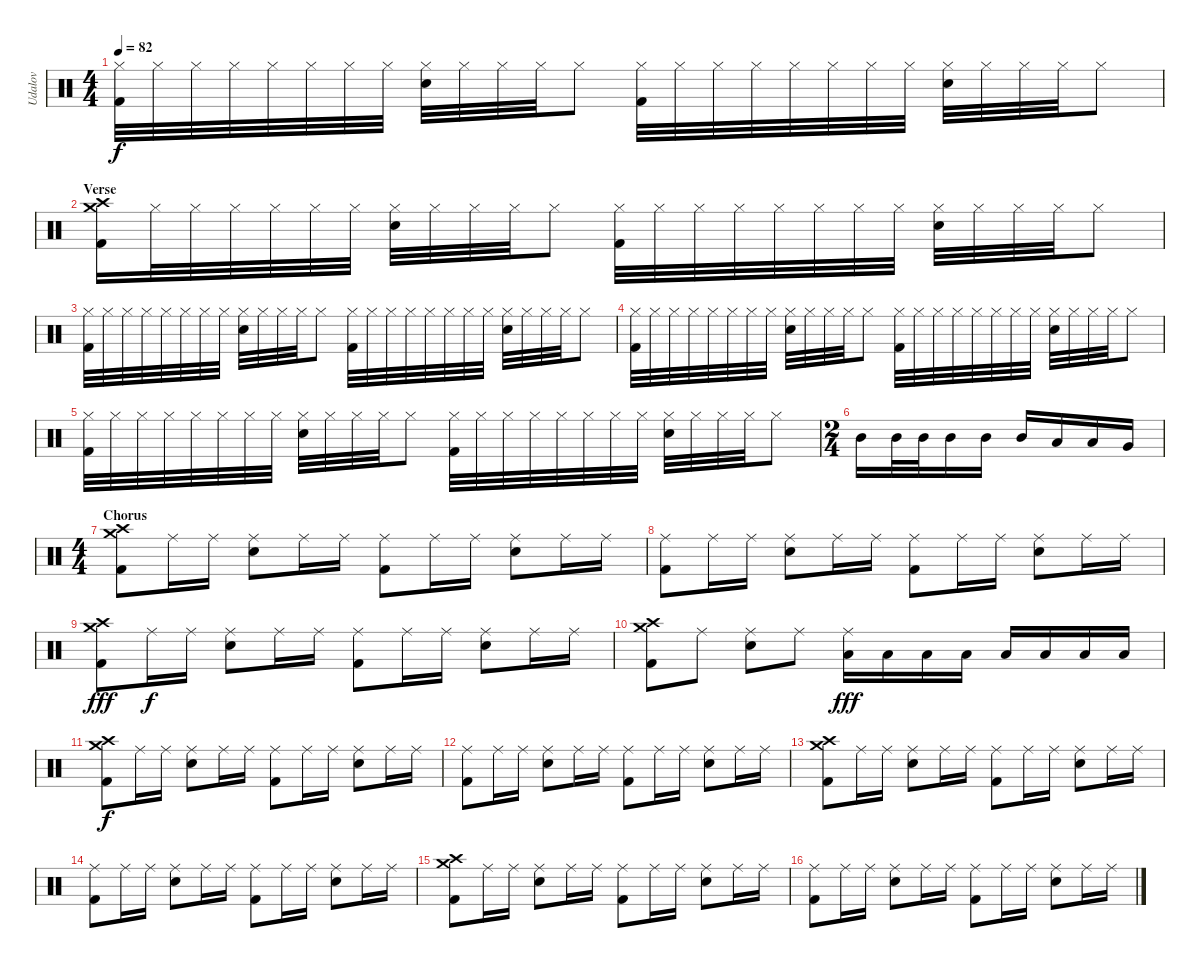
\track ("Udalov" "Udalov") {instrument percussion}
\staff {score}
\articulation defaults
\ts (4 4)
\tempo 82
\clef neutral
\ks c
("Hi-Hat (closed)" "Kick (hit) 2").32{dy f} "Hi-Hat (closed)".32 "Hi-Hat (closed)".32 "Hi-Hat (closed)".32 "Hi-Hat (closed)".32 "Hi-Hat (closed)".32 "Hi-Hat (closed)".32 "Hi-Hat (closed)".32 ("Hi-Hat (closed)" "Snare (hit) 2").32 "Hi-Hat (closed)".32 "Hi-Hat (closed)".32 "Hi-Hat (closed)".32 "Hi-Hat (closed)".8 ("Hi-Hat (closed)" "Kick (hit) 2").32 "Hi-Hat (closed)".32 "Hi-Hat (closed)".32 "Hi-Hat (closed)".32 "Hi-Hat (closed)".32 "Hi-Hat (closed)".32 "Hi-Hat (closed)".32 "Hi-Hat (closed)".32 ("Hi-Hat (closed)" "Snare (hit) 2").32 "Hi-Hat (closed)".32 "Hi-Hat (closed)".32 "Hi-Hat (closed)".32 "Hi-Hat (closed)".8 |
\section ("" "Verse")
("Crash high (hit)" "Crash medium (hit)" "Kick (hit) 2").16 "Hi-Hat (closed)".32 "Hi-Hat (closed)".32 "Hi-Hat (closed)".32 "Hi-Hat (closed)".32 "Hi-Hat (closed)".32 "Hi-Hat (closed)".32 ("Hi-Hat (closed)" "Snare (hit) 2").32 "Hi-Hat (closed)".32 "Hi-Hat (closed)".32 "Hi-Hat (closed)".32 "Hi-Hat (closed)".8 ("Hi-Hat (closed)" "Kick (hit) 2").32 "Hi-Hat (closed)".32 "Hi-Hat (closed)".32 "Hi-Hat (closed)".32 "Hi-Hat (closed)".32 "Hi-Hat (closed)".32 "Hi-Hat (closed)".32 "Hi-Hat (closed)".32 ("Hi-Hat (closed)" "Snare (hit) 2").32 "Hi-Hat (closed)".32 "Hi-Hat (closed)".32 "Hi-Hat (closed)".32 "Hi-Hat (closed)".8 |
("Hi-Hat (closed)" "Kick (hit) 2").32 "Hi-Hat (closed)".32 "Hi-Hat (closed)".32 "Hi-Hat (closed)".32 "Hi-Hat (closed)".32 "Hi-Hat (closed)".32 "Hi-Hat (closed)".32 "Hi-Hat (closed)".32 ("Hi-Hat (closed)" "Snare (hit) 2").32 "Hi-Hat (closed)".32 "Hi-Hat (closed)".32 "Hi-Hat (closed)".32 "Hi-Hat (closed)".8 ("Hi-Hat (closed)" "Kick (hit) 2").32 "Hi-Hat (closed)".32 "Hi-Hat (closed)".32 "Hi-Hat (closed)".32 "Hi-Hat (closed)".32 "Hi-Hat (closed)".32 "Hi-Hat (closed)".32 "Hi-Hat (closed)".32 ("Hi-Hat (closed)" "Snare (hit) 2").32 "Hi-Hat (closed)".32 "Hi-Hat (closed)".32 "Hi-Hat (closed)".32 "Hi-Hat (closed)".8 |
("Hi-Hat (closed)" "Kick (hit) 2").32 "Hi-Hat (closed)".32 "Hi-Hat (closed)".32 "Hi-Hat (closed)".32 "Hi-Hat (closed)".32 "Hi-Hat (closed)".32 "Hi-Hat (closed)".32 "Hi-Hat (closed)".32 ("Hi-Hat (closed)" "Snare (hit) 2").32 "Hi-Hat (closed)".32 "Hi-Hat (closed)".32 "Hi-Hat (closed)".32 "Hi-Hat (closed)".8 ("Hi-Hat (closed)" "Kick (hit) 2").32 "Hi-Hat (closed)".32 "Hi-Hat (closed)".32 "Hi-Hat (closed)".32 "Hi-Hat (closed)".32 "Hi-Hat (closed)".32 "Hi-Hat (closed)".32 "Hi-Hat (closed)".32 ("Hi-Hat (closed)" "Snare (hit) 2").32 "Hi-Hat (closed)".32 "Hi-Hat (closed)".32 "Hi-Hat (closed)".32 "Hi-Hat (closed)".8 |
("Hi-Hat (closed)" "Kick (hit) 2").32 "Hi-Hat (closed)".32 "Hi-Hat (closed)".32 "Hi-Hat (closed)".32 "Hi-Hat (closed)".32 "Hi-Hat (closed)".32 "Hi-Hat (closed)".32 "Hi-Hat (closed)".32 ("Hi-Hat (closed)" "Snare (hit) 2").32 "Hi-Hat (closed)".32 "Hi-Hat (closed)".32 "Hi-Hat (closed)".32 "Hi-Hat (closed)".8 ("Hi-Hat (closed)" "Kick (hit) 2").32 "Hi-Hat (closed)".32 "Hi-Hat (closed)".32 "Hi-Hat (closed)".32 "Hi-Hat (closed)".32 "Hi-Hat (closed)".32 "Hi-Hat (closed)".32 "Hi-Hat (closed)".32 ("Hi-Hat (closed)" "Snare (hit) 2").32 "Hi-Hat (closed)".32 "Hi-Hat (closed)".32 "Hi-Hat (closed)".32 "Hi-Hat (closed)".8 |
\ts (2 4)
"Mid Tom (hit)".16 "Mid Tom (hit)".32 "Mid Tom (hit)".32 "Mid Tom (hit)".16 "Mid Tom (hit)".16 "Mid Tom (hit)".16 "Low Tom (hit)".16 "Low Tom (hit)".16 "Very Low Tom (hit)".16 |
\ts (4 4)
\section ("" "Chorus")
("Kick (hit) 2" "Crash high (hit)" "Crash medium (hit)").8 "Ride (middle)".16 "Ride (middle)".16 ("Snare (hit) 2" "Ride (middle)").8 "Ride (middle)".16 "Ride (middle)".16 ("Kick (hit) 2" "Ride (middle)").8 "Ride (middle)".16 "Ride (middle)".16 ("Snare (hit) 2" "Ride (middle)").8 "Ride (middle)".16 "Ride (middle)".16 |
("Kick (hit) 2" "Ride (middle)").8 "Ride (middle)".16 "Ride (middle)".16 ("Snare (hit) 2" "Ride (middle)").8 "Ride (middle)".16 "Ride (middle)".16 ("Kick (hit) 2" "Ride (middle)").8 "Ride (middle)".16 "Ride (middle)".16 ("Snare (hit) 2" "Ride (middle)").8 "Ride (middle)".16 "Ride (middle)".16 |
("Kick (hit) 2" "Crash high (hit)" "Crash medium (hit)").8{dy fff} "Ride (middle)".16{dy f} "Ride (middle)".16 ("Snare (hit) 2" "Ride (middle)").8 "Ride (middle)".16 "Ride (middle)".16 ("Kick (hit) 2" "Ride (middle)").8 "Ride (middle)".16 "Ride (middle)".16 ("Snare (hit) 2" "Ride (middle)").8 "Ride (middle)".16 "Ride (middle)".16 |
("Kick (hit) 2" "Crash high (hit)" "Crash medium (hit)").8 "Ride (middle)".8 ("Snare (hit) 2" "Ride (middle)").8 "Ride (middle)".8 ("Low Tom (hit)" "Ride (middle)").16{dy fff} "Low Tom (hit)".16 "Low Tom (hit)".16 "Low Tom (hit)".16 "Low Tom (hit)".16 "Low Tom (hit)".16 "Low Tom (hit)".16 "Low Tom (hit)".16 |
("Kick (hit) 2" "Crash high (hit)" "Crash medium (hit)").8{dy f} "Ride (middle)".16 "Ride (middle)".16 ("Snare (hit) 2" "Ride (middle)").8 "Ride (middle)".16 "Ride (middle)".16 ("Kick (hit) 2" "Ride (middle)").8 "Ride (middle)".16 "Ride (middle)".16 ("Snare (hit) 2" "Ride (middle)").8 "Ride (middle)".16 "Ride (middle)".16 |
("Kick (hit) 2" "Ride (middle)").8 "Ride (middle)".16 "Ride (middle)".16 ("Snare (hit) 2" "Ride (middle)").8 "Ride (middle)".16 "Ride (middle)".16 ("Kick (hit) 2" "Ride (middle)").8 "Ride (middle)".16 "Ride (middle)".16 ("Snare (hit) 2" "Ride (middle)").8 "Ride (middle)".16 "Ride (middle)".16 |
("Kick (hit) 2" "Crash high (hit)" "Crash medium (hit)").8 "Ride (middle)".16 "Ride (middle)".16 ("Snare (hit) 2" "Ride (middle)").8 "Ride (middle)".16 "Ride (middle)".16 ("Kick (hit) 2" "Ride (middle)").8 "Ride (middle)".16 "Ride (middle)".16 ("Snare (hit) 2" "Ride (middle)").8 "Ride (middle)".16 "Ride (middle)".16 |
("Kick (hit) 2" "Ride (middle)").8 "Ride (middle)".16 "Ride (middle)".16 ("Snare (hit) 2" "Ride (middle)").8 "Ride (middle)".16 "Ride (middle)".16 ("Kick (hit) 2" "Ride (middle)").8 "Ride (middle)".16 "Ride (middle)".16 ("Snare (hit) 2" "Ride (middle)").8 "Ride (middle)".16 "Ride (middle)".16 |
("Kick (hit) 2" "Crash high (hit)" "Crash medium (hit)").8 "Ride (middle)".16 "Ride (middle)".16 ("Snare (hit) 2" "Ride (middle)").8 "Ride (middle)".16 "Ride (middle)".16 ("Kick (hit) 2" "Ride (middle)").8 "Ride (middle)".16 "Ride (middle)".16 ("Snare (hit) 2" "Ride (middle)").8 "Ride (middle)".16 "Ride (middle)".16 |
("Kick (hit) 2" "Ride (middle)").8 "Ride (middle)".16 "Ride (middle)".16 ("Snare (hit) 2" "Ride (middle)").8 "Ride (middle)".16 "Ride (middle)".16 ("Kick (hit) 2" "Ride (middle)").8 "Ride (middle)".16 "Ride (middle)".16 ("Snare (hit) 2" "Ride (middle)").8 "Ride (middle)".16 "Ride (middle)".16
